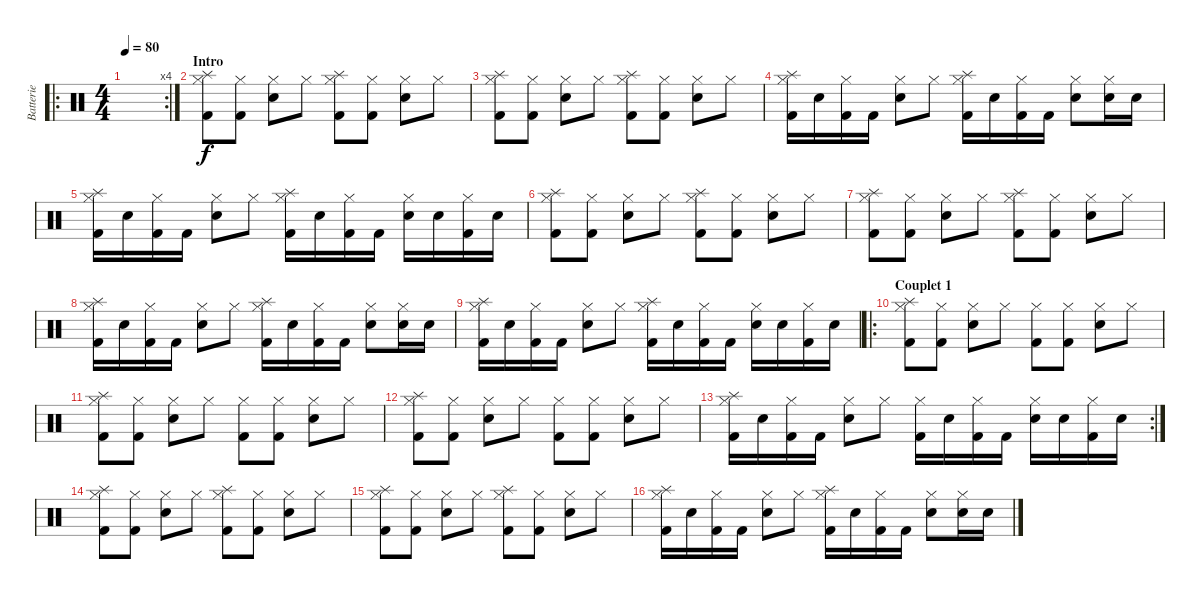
\track ("Batterie" "Batterie") {instrument percussion}
\staff {score}
\articulation defaults
\ro
\rc 4
\ts (4 4)
\tempo 80
\clef neutral
\ks c
|
\section ("" "Intro")
("Splash (hit)" "Hi-Hat (closed)" "Kick (hit) 2").8 ("Hi-Hat (closed)" "Kick (hit) 2").8 ("Hi-Hat (closed)" "Snare (hit) 2").8 "Hi-Hat (closed)".8 ("Splash (hit)" "Hi-Hat (closed)" "Kick (hit) 2").8 ("Hi-Hat (closed)" "Kick (hit) 2").8 ("Hi-Hat (closed)" "Snare (hit) 2").8 "Hi-Hat (closed)".8 |
("Splash (hit)" "Hi-Hat (closed)" "Kick (hit) 2").8 ("Hi-Hat (closed)" "Kick (hit) 2").8 ("Hi-Hat (closed)" "Snare (hit) 2").8 "Hi-Hat (closed)".8 ("Splash (hit)" "Hi-Hat (closed)" "Kick (hit) 2").8 ("Hi-Hat (closed)" "Kick (hit) 2").8 ("Hi-Hat (closed)" "Snare (hit) 2").8 "Hi-Hat (closed)".8 |
("Splash (hit)" "Hi-Hat (closed)" "Kick (hit) 2").16 "Snare (hit) 2".16 ("Hi-Hat (closed)" "Kick (hit) 2").16 "Kick (hit) 2".16 ("Hi-Hat (closed)" "Snare (hit) 2").8 "Hi-Hat (closed)".8 ("Splash (hit)" "Hi-Hat (closed)" "Kick (hit) 2").16 "Snare (hit) 2".16 ("Hi-Hat (closed)" "Kick (hit) 2").16 "Kick (hit) 2".16 ("Hi-Hat (closed)" "Snare (hit) 2").8 ("Hi-Hat (closed)" "Snare (hit) 2").16 "Snare (hit) 2".16 |
("Splash (hit)" "Hi-Hat (closed)" "Kick (hit) 2").16 "Snare (hit) 2".16 ("Hi-Hat (closed)" "Kick (hit) 2").16 "Kick (hit) 2".16 ("Hi-Hat (closed)" "Snare (hit) 2").8 "Hi-Hat (closed)".8 ("Splash (hit)" "Hi-Hat (closed)" "Kick (hit) 2").16 "Snare (hit) 2".16 ("Hi-Hat (closed)" "Kick (hit) 2").16 "Kick (hit) 2".16 ("Hi-Hat (closed)" "Snare (hit) 2").16 "Snare (hit) 2".16 ("Hi-Hat (closed)" "Kick (hit) 2").16 "Snare (hit) 2".16 |
("Splash (hit)" "Hi-Hat (closed)" "Kick (hit) 2").8 ("Hi-Hat (closed)" "Kick (hit) 2").8 ("Hi-Hat (closed)" "Snare (hit) 2").8 "Hi-Hat (closed)".8 ("Splash (hit)" "Hi-Hat (closed)" "Kick (hit) 2").8 ("Hi-Hat (closed)" "Kick (hit) 2").8 ("Hi-Hat (closed)" "Snare (hit) 2").8 "Hi-Hat (closed)".8 |
("Splash (hit)" "Hi-Hat (closed)" "Kick (hit) 2").8 ("Hi-Hat (closed)" "Kick (hit) 2").8 ("Hi-Hat (closed)" "Snare (hit) 2").8 "Hi-Hat (closed)".8 ("Splash (hit)" "Hi-Hat (closed)" "Kick (hit) 2").8 ("Hi-Hat (closed)" "Kick (hit) 2").8 ("Hi-Hat (closed)" "Snare (hit) 2").8 "Hi-Hat (closed)".8 |
("Splash (hit)" "Hi-Hat (closed)" "Kick (hit) 2").16 "Snare (hit) 2".16 ("Hi-Hat (closed)" "Kick (hit) 2").16 "Kick (hit) 2".16 ("Hi-Hat (closed)" "Snare (hit) 2").8 "Hi-Hat (closed)".8 ("Splash (hit)" "Hi-Hat (closed)" "Kick (hit) 2").16 "Snare (hit) 2".16 ("Hi-Hat (closed)" "Kick (hit) 2").16 "Kick (hit) 2".16 ("Hi-Hat (closed)" "Snare (hit) 2").8 ("Hi-Hat (closed)" "Snare (hit) 2").16 "Snare (hit) 2".16 |
("Splash (hit)" "Hi-Hat (closed)" "Kick (hit) 2").16 "Snare (hit) 2".16 ("Hi-Hat (closed)" "Kick (hit) 2").16 "Kick (hit) 2".16 ("Hi-Hat (closed)" "Snare (hit) 2").8 "Hi-Hat (closed)".8 ("Splash (hit)" "Hi-Hat (closed)" "Kick (hit) 2").16 "Snare (hit) 2".16 ("Hi-Hat (closed)" "Kick (hit) 2").16 "Kick (hit) 2".16 ("Hi-Hat (closed)" "Snare (hit) 2").16 "Snare (hit) 2".16 ("Hi-Hat (closed)" "Kick (hit) 2").16 "Snare (hit) 2".16 |
\ro
\section ("" "Couplet 1")
("Splash (hit)" "Hi-Hat (closed)" "Kick (hit) 2").8 ("Hi-Hat (closed)" "Kick (hit) 2").8 ("Hi-Hat (closed)" "Snare (hit) 2").8 "Hi-Hat (closed)".8 ("Hi-Hat (closed)" "Kick (hit) 2").8 ("Hi-Hat (closed)" "Kick (hit) 2").8 ("Hi-Hat (closed)" "Snare (hit) 2").8 "Hi-Hat (closed)".8 |
("Splash (hit)" "Hi-Hat (closed)" "Kick (hit) 2").8 ("Hi-Hat (closed)" "Kick (hit) 2").8 ("Hi-Hat (closed)" "Snare (hit) 2").8 "Hi-Hat (closed)".8 ("Hi-Hat (closed)" "Kick (hit) 2").8 ("Hi-Hat (closed)" "Kick (hit) 2").8 ("Hi-Hat (closed)" "Snare (hit) 2").8 "Hi-Hat (closed)".8 |
("Splash (hit)" "Hi-Hat (closed)" "Kick (hit) 2").8 ("Hi-Hat (closed)" "Kick (hit) 2").8 ("Hi-Hat (closed)" "Snare (hit) 2").8 "Hi-Hat (closed)".8 ("Hi-Hat (closed)" "Kick (hit) 2").8 ("Hi-Hat (closed)" "Kick (hit) 2").8 ("Hi-Hat (closed)" "Snare (hit) 2").8 "Hi-Hat (closed)".8 |
\rc 2
("Splash (hit)" "Hi-Hat (closed)" "Kick (hit) 2").16 "Snare (hit) 2".16 ("Hi-Hat (closed)" "Kick (hit) 2").16 "Kick (hit) 2".16 ("Hi-Hat (closed)" "Snare (hit) 2").8 "Hi-Hat (closed)".8 ("Hi-Hat (closed)" "Kick (hit) 2").16 "Snare (hit) 2".16 ("Hi-Hat (closed)" "Kick (hit) 2").16 "Kick (hit) 2".16 ("Hi-Hat (closed)" "Snare (hit) 2").16 "Snare (hit) 2".16 ("Hi-Hat (closed)" "Kick (hit) 2").16 "Snare (hit) 2".16 |
("Splash (hit)" "Hi-Hat (closed)" "Kick (hit) 2").8 ("Hi-Hat (closed)" "Kick (hit) 2").8 ("Hi-Hat (closed)" "Snare (hit) 2").8 "Hi-Hat (closed)".8 ("Splash (hit)" "Hi-Hat (closed)" "Kick (hit) 2").8 ("Hi-Hat (closed)" "Kick (hit) 2").8 ("Hi-Hat (closed)" "Snare (hit) 2").8 "Hi-Hat (closed)".8 |
("Splash (hit)" "Hi-Hat (closed)" "Kick (hit) 2").8 ("Hi-Hat (closed)" "Kick (hit) 2").8 ("Hi-Hat (closed)" "Snare (hit) 2").8 "Hi-Hat (closed)".8 ("Splash (hit)" "Hi-Hat (closed)" "Kick (hit) 2").8 ("Hi-Hat (closed)" "Kick (hit) 2").8 ("Hi-Hat (closed)" "Snare (hit) 2").8 "Hi-Hat (closed)".8 |
("Splash (hit)" "Hi-Hat (closed)" "Kick (hit) 2").16 "Snare (hit) 2".16 ("Hi-Hat (closed)" "Kick (hit) 2").16 "Kick (hit) 2".16 ("Hi-Hat (closed)" "Snare (hit) 2").8 "Hi-Hat (closed)".8 ("Splash (hit)" "Hi-Hat (closed)" "Kick (hit) 2").16 "Snare (hit) 2".16 ("Hi-Hat (closed)" "Kick (hit) 2").16 "Kick (hit) 2".16 ("Hi-Hat (closed)" "Snare (hit) 2").8 ("Hi-Hat (closed)" "Snare (hit) 2").16 "Snare (hit) 2".16
